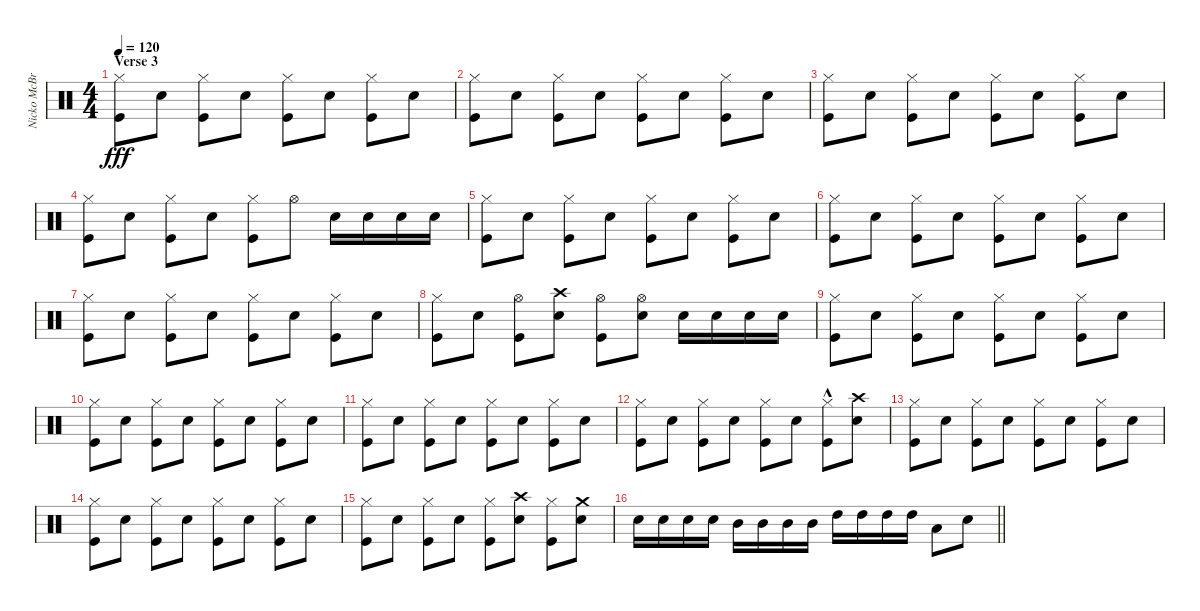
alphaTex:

\track ("Nicko McBrain" "Nicko McBr") {instrument percussion}
\staff {score}
\articulation defaults
\ts (4 4)
\section ("" "Verse 3")
\tempo 120
\clef neutral
\ks c
("Hi-Hat (closed)" "Kick (hit)").8{dy fff} "Electric Snare (hit)".8 ("Hi-Hat (closed)" "Kick (hit)").8 "Electric Snare (hit)".8 ("Hi-Hat (closed)" "Kick (hit)").8 "Electric Snare (hit)".8 ("Hi-Hat (closed)" "Kick (hit)").8 "Electric Snare (hit)".8 |
("Hi-Hat (closed)" "Kick (hit)").8 "Electric Snare (hit)".8 ("Hi-Hat (closed)" "Kick (hit)").8 "Electric Snare (hit)".8 ("Hi-Hat (closed)" "Kick (hit)").8 "Electric Snare (hit)".8 ("Hi-Hat (closed)" "Kick (hit)").8 "Electric Snare (hit)".8 |
("Hi-Hat (closed)" "Kick (hit)").8 "Electric Snare (hit)".8 ("Hi-Hat (closed)" "Kick (hit)").8 "Electric Snare (hit)".8 ("Hi-Hat (closed)" "Kick (hit)").8 "Electric Snare (hit)".8 ("Hi-Hat (closed)" "Kick (hit)").8 "Electric Snare (hit)".8 |
("Hi-Hat (closed)" "Kick (hit)").8 "Electric Snare (hit)".8 ("Hi-Hat (closed)" "Kick (hit)").8 "Electric Snare (hit)".8 ("Hi-Hat (closed)" "Kick (hit)").8 "Hi-Hat (open)".8 "Electric Snare (hit)".16 "Electric Snare (hit)".16 "Electric Snare (hit)".16 "Electric Snare (hit)".16 |
("Hi-Hat (closed)" "Kick (hit)").8 "Electric Snare (hit)".8 ("Hi-Hat (closed)" "Kick (hit)").8 "Electric Snare (hit)".8 ("Hi-Hat (closed)" "Kick (hit)").8 "Electric Snare (hit)".8 ("Hi-Hat (closed)" "Kick (hit)").8 "Electric Snare (hit)".8 |
("Hi-Hat (closed)" "Kick (hit)").8 "Electric Snare (hit)".8 ("Hi-Hat (closed)" "Kick (hit)").8 "Electric Snare (hit)".8 ("Hi-Hat (closed)" "Kick (hit)").8 "Electric Snare (hit)".8 ("Hi-Hat (closed)" "Kick (hit)").8 "Electric Snare (hit)".8 |
("Hi-Hat (closed)" "Kick (hit)").8 "Electric Snare (hit)".8 ("Hi-Hat (closed)" "Kick (hit)").8 "Electric Snare (hit)".8 ("Hi-Hat (closed)" "Kick (hit)").8 "Electric Snare (hit)".8 ("Hi-Hat (closed)" "Kick (hit)").8 "Electric Snare (hit)".8 |
("Hi-Hat (closed)" "Kick (hit)").8 "Electric Snare (hit)".8 ("Hi-Hat (open)" "Kick (hit)").8 ("Crash high (hit)" "Electric Snare (hit)").8 ("Hi-Hat (open)" "Kick (hit)").8 ("Hi-Hat (open)" "Electric Snare (hit)").8 "Electric Snare (hit)".16 "Electric Snare (hit)".16 "Electric Snare (hit)".16 "Electric Snare (hit)".16 |
("Hi-Hat (closed)" "Kick (hit)").8 "Electric Snare (hit)".8 ("Hi-Hat (closed)" "Kick (hit)").8 "Electric Snare (hit)".8 ("Hi-Hat (closed)" "Kick (hit)").8 "Electric Snare (hit)".8 ("Hi-Hat (closed)" "Kick (hit)").8 "Electric Snare (hit)".8 |
("Hi-Hat (closed)" "Kick (hit)").8 "Electric Snare (hit)".8 ("Hi-Hat (closed)" "Kick (hit)").8 "Electric Snare (hit)".8 ("Hi-Hat (closed)" "Kick (hit)").8 "Electric Snare (hit)".8 ("Hi-Hat (closed)" "Kick (hit)").8 "Electric Snare (hit)".8 |
("Hi-Hat (closed)" "Kick (hit)").8 "Electric Snare (hit)".8 ("Hi-Hat (closed)" "Kick (hit)").8 "Electric Snare (hit)".8 ("Hi-Hat (closed)" "Kick (hit)").8 "Electric Snare (hit)".8 ("Hi-Hat (closed)" "Kick (hit)").8 "Electric Snare (hit)".8 |
("Hi-Hat (closed)" "Kick (hit)").8 "Electric Snare (hit)".8 ("Hi-Hat (closed)" "Kick (hit)").8 "Electric Snare (hit)".8 ("Hi-Hat (closed)" "Kick (hit)").8 "Electric Snare (hit)".8 ("Hi-Hat (closed)"{hac} "Kick (hit)").8 ("Crash high (hit)" "Electric Snare (hit)").8 |
("Hi-Hat (closed)" "Kick (hit)").8 "Electric Snare (hit)".8 ("Hi-Hat (closed)" "Kick (hit)").8 "Electric Snare (hit)".8 ("Hi-Hat (closed)" "Kick (hit)").8 "Electric Snare (hit)".8 ("Hi-Hat (closed)" "Kick (hit)").8 "Electric Snare (hit)".8 |
("Hi-Hat (closed)" "Kick (hit)").8 "Electric Snare (hit)".8 ("Hi-Hat (closed)" "Kick (hit)").8 "Electric Snare (hit)".8 ("Hi-Hat (closed)" "Kick (hit)").8 "Electric Snare (hit)".8 ("Hi-Hat (closed)" "Kick (hit)").8 "Electric Snare (hit)".8 |
("Hi-Hat (closed)" "Kick (hit)").8 "Electric Snare (hit)".8 ("Hi-Hat (closed)" "Kick (hit)").8 "Electric Snare (hit)".8 ("Hi-Hat (closed)" "Kick (hit)").8 ("Crash high (hit)" "Electric Snare (hit)").8 ("Hi-Hat (closed)" "Kick (hit)").8 ("Crash medium (hit)" "Electric Snare (hit)").8 |
\barLineRight lightlight "Electric Snare (hit)".16 "Electric Snare (hit)".16 "Electric Snare (hit)".16 "Electric Snare (hit)".16 "Mid Tom (hit)".16 "Mid Tom (hit)".16 "Mid Tom (hit)".16 "Mid Tom (hit)".16 "High Tom (hit)".16 "High Tom (hit)".16 "High Tom (hit)".16 "High Tom (hit)".16 "Low Tom (hit)".8 "Electric Snare (hit)".8
